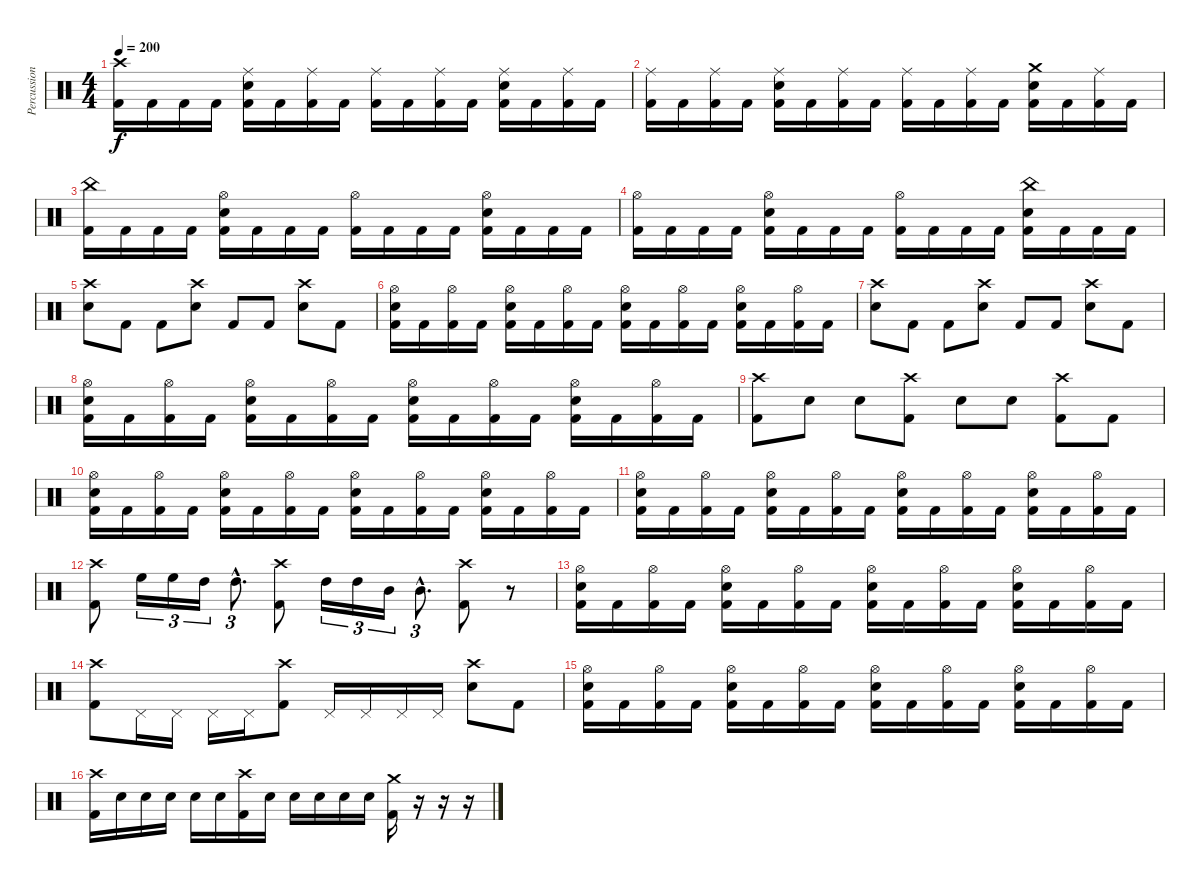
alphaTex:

\track ("Percussion" "Percussion") {instrument percussion}
\staff {score}
\articulation defaults
\ts (4 4)
\tempo 200
\clef neutral
\ks c
("Crash high (hit)" "Kick (hit) 2").16{dy f} "Kick (hit) 2".16 "Kick (hit) 2".16 "Kick (hit) 2".16 ("Ride (middle)" "Electric Snare (hit)" "Kick (hit) 2").16 "Kick (hit) 2".16 ("Ride (middle)" "Kick (hit) 2").16 "Kick (hit) 2".16 ("Ride (middle)" "Kick (hit) 2").16 "Kick (hit) 2".16 ("Ride (middle)" "Kick (hit) 2").16 "Kick (hit) 2".16 ("Ride (middle)" "Electric Snare (hit)" "Kick (hit) 2").16 "Kick (hit) 2".16 ("Ride (middle)" "Kick (hit) 2").16 "Kick (hit) 2".16 |
("Ride (middle)" "Kick (hit) 2").16 "Kick (hit) 2".16 ("Ride (middle)" "Kick (hit) 2").16 "Kick (hit) 2".16 ("Ride (middle)" "Electric Snare (hit)" "Kick (hit) 2").16 "Kick (hit) 2".16 ("Ride (middle)" "Kick (hit) 2").16 "Kick (hit) 2".16 ("Ride (middle)" "Kick (hit) 2").16 "Kick (hit) 2".16 ("Ride (middle)" "Kick (hit) 2").16 "Kick (hit) 2".16 ("Crash medium (hit)" "Electric Snare (hit)" "Kick (hit) 2").16 "Kick (hit) 2".16 ("Ride (middle)" "Kick (hit) 2").16 "Kick (hit) 2".16 |
("China (hit)" "Kick (hit) 2").16 "Kick (hit) 2".16 "Kick (hit) 2".16 "Kick (hit) 2".16 ("Hi-Hat (open)" "Electric Snare (hit)" "Kick (hit) 2").16 "Kick (hit) 2".16 "Kick (hit) 2".16 "Kick (hit) 2".16 ("Hi-Hat (open)" "Kick (hit) 2").16 "Kick (hit) 2".16 "Kick (hit) 2".16 "Kick (hit) 2".16 ("Hi-Hat (open)" "Electric Snare (hit)" "Kick (hit) 2").16 "Kick (hit) 2".16 "Kick (hit) 2".16 "Kick (hit) 2".16 |
("Hi-Hat (open)" "Kick (hit) 2").16 "Kick (hit) 2".16 "Kick (hit) 2".16 "Kick (hit) 2".16 ("Hi-Hat (open)" "Electric Snare (hit)" "Kick (hit) 2").16 "Kick (hit) 2".16 "Kick (hit) 2".16 "Kick (hit) 2".16 ("Hi-Hat (open)" "Kick (hit) 2").16 "Kick (hit) 2".16 "Kick (hit) 2".16 "Kick (hit) 2".16 ("China (hit)" "Electric Snare (hit)" "Kick (hit) 2").16 "Kick (hit) 2".16 "Kick (hit) 2".16 "Kick (hit) 2".16 |
("Crash high (hit)" "Electric Snare (hit)").8 "Kick (hit) 2".8 "Kick (hit) 2".8 ("Crash high (hit)" "Electric Snare (hit)").8 "Kick (hit) 2".8 "Kick (hit) 2".8 ("Crash high (hit)" "Electric Snare (hit)").8 "Kick (hit) 2".8 |
("Hi-Hat (open)" "Electric Snare (hit)" "Kick (hit) 2").16 "Kick (hit) 2".16 ("Hi-Hat (open)" "Kick (hit) 2").16 "Kick (hit) 2".16 ("Hi-Hat (open)" "Electric Snare (hit)" "Kick (hit) 2").16 "Kick (hit) 2".16 ("Hi-Hat (open)" "Kick (hit) 2").16 "Kick (hit) 2".16 ("Hi-Hat (open)" "Electric Snare (hit)" "Kick (hit) 2").16 "Kick (hit) 2".16 ("Hi-Hat (open)" "Kick (hit) 2").16 "Kick (hit) 2".16 ("Hi-Hat (open)" "Electric Snare (hit)" "Kick (hit) 2").16 "Kick (hit) 2".16 ("Hi-Hat (open)" "Kick (hit) 2").16 "Kick (hit) 2".16 |
("Crash high (hit)" "Electric Snare (hit)").8 "Kick (hit) 2".8 "Kick (hit) 2".8 ("Crash high (hit)" "Electric Snare (hit)").8 "Kick (hit) 2".8 "Kick (hit) 2".8 ("Crash high (hit)" "Electric Snare (hit)").8 "Kick (hit) 2".8 |
("Hi-Hat (open)" "Electric Snare (hit)" "Kick (hit) 2").16 "Kick (hit) 2".16 ("Hi-Hat (open)" "Kick (hit) 2").16 "Kick (hit) 2".16 ("Hi-Hat (open)" "Electric Snare (hit)" "Kick (hit) 2").16 "Kick (hit) 2".16 ("Hi-Hat (open)" "Kick (hit) 2").16 "Kick (hit) 2".16 ("Hi-Hat (open)" "Electric Snare (hit)" "Kick (hit) 2").16 "Kick (hit) 2".16 ("Hi-Hat (open)" "Kick (hit) 2").16 "Kick (hit) 2".16 ("Hi-Hat (open)" "Electric Snare (hit)" "Kick (hit) 2").16 "Kick (hit) 2".16 ("Hi-Hat (open)" "Kick (hit) 2").16 "Kick (hit) 2".16 |
("Crash high (hit)" "Kick (hit) 2").8 "Electric Snare (hit)".8 "Electric Snare (hit)".8 ("Crash high (hit)" "Kick (hit) 2").8 "Electric Snare (hit)".8 "Electric Snare (hit)".8 ("Crash high (hit)" "Kick (hit) 2").8 "Kick (hit) 2".8 |
("Hi-Hat (open)" "Electric Snare (hit)" "Kick (hit) 2").16 "Kick (hit) 2".16 ("Hi-Hat (open)" "Kick (hit) 2").16 "Kick (hit) 2".16 ("Hi-Hat (open)" "Electric Snare (hit)" "Kick (hit) 2").16 "Kick (hit) 2".16 ("Hi-Hat (open)" "Kick (hit) 2").16 "Kick (hit) 2".16 ("Hi-Hat (open)" "Electric Snare (hit)" "Kick (hit) 2").16 "Kick (hit) 2".16 ("Hi-Hat (open)" "Kick (hit) 2").16 "Kick (hit) 2".16 ("Hi-Hat (open)" "Electric Snare (hit)" "Kick (hit) 2").16 "Kick (hit) 2".16 ("Hi-Hat (open)" "Kick (hit) 2").16 "Kick (hit) 2".16 |
("Hi-Hat (open)" "Electric Snare (hit)" "Kick (hit) 2").16 "Kick (hit) 2".16 ("Hi-Hat (open)" "Kick (hit) 2").16 "Kick (hit) 2".16 ("Hi-Hat (open)" "Electric Snare (hit)" "Kick (hit) 2").16 "Kick (hit) 2".16 ("Hi-Hat (open)" "Kick (hit) 2").16 "Kick (hit) 2".16 ("Hi-Hat (open)" "Electric Snare (hit)" "Kick (hit) 2").16 "Kick (hit) 2".16 ("Hi-Hat (open)" "Kick (hit) 2").16 "Kick (hit) 2".16 ("Hi-Hat (open)" "Electric Snare (hit)" "Kick (hit) 2").16 "Kick (hit) 2".16 ("Hi-Hat (open)" "Kick (hit) 2").16 "Kick (hit) 2".16 |
("Crash high (hit)" "Kick (hit) 2").8 "High Floor Tom (hit)".16{tu (3 2)} "High Floor Tom (hit)".16{tu (3 2)} "High Tom (hit)".16{tu (3 2)} "High Tom (hit)"{hac}.8{d tu (3 2)} ("Crash high (hit)" "Kick (hit) 2").8 "High Tom (hit)".16{tu (3 2)} "High Tom (hit)".16{tu (3 2)} "Mid Tom (hit)".16{tu (3 2)} "Mid Tom (hit)"{hac}.8{d tu (3 2)} ("Crash high (hit)" "Kick (hit) 2").8 r.8 |
("Hi-Hat (open)" "Electric Snare (hit)" "Kick (hit) 2").16 "Kick (hit) 2".16 ("Hi-Hat (open)" "Kick (hit) 2").16 "Kick (hit) 2".16 ("Hi-Hat (open)" "Electric Snare (hit)" "Kick (hit) 2").16 "Kick (hit) 2".16 ("Hi-Hat (open)" "Kick (hit) 2").16 "Kick (hit) 2".16 ("Hi-Hat (open)" "Electric Snare (hit)" "Kick (hit) 2").16 "Kick (hit) 2".16 ("Hi-Hat (open)" "Kick (hit) 2").16 "Kick (hit) 2".16 ("Hi-Hat (open)" "Electric Snare (hit)" "Kick (hit) 2").16 "Kick (hit) 2".16 ("Hi-Hat (open)" "Kick (hit) 2").16 "Kick (hit) 2".16 |
("Crash high (hit)" "Kick (hit) 2").8 "Pedal Hi-Hat (hit)".16 "Pedal Hi-Hat (hit)".16 "Pedal Hi-Hat (hit)".16 "Pedal Hi-Hat (hit)".16 ("Crash high (hit)" "Kick (hit) 2").8 "Pedal Hi-Hat (hit)".16 "Pedal Hi-Hat (hit)".16 "Pedal Hi-Hat (hit)".16 "Pedal Hi-Hat (hit)".16 ("Crash high (hit)" "Electric Snare (hit)").8 "Kick (hit) 2".8 |
("Hi-Hat (open)" "Electric Snare (hit)" "Kick (hit) 2").16 "Kick (hit) 2".16 ("Hi-Hat (open)" "Kick (hit) 2").16 "Kick (hit) 2".16 ("Hi-Hat (open)" "Electric Snare (hit)" "Kick (hit) 2").16 "Kick (hit) 2".16 ("Hi-Hat (open)" "Kick (hit) 2").16 "Kick (hit) 2".16 ("Hi-Hat (open)" "Electric Snare (hit)" "Kick (hit) 2").16 "Kick (hit) 2".16 ("Hi-Hat (open)" "Kick (hit) 2").16 "Kick (hit) 2".16 ("Hi-Hat (open)" "Electric Snare (hit)" "Kick (hit) 2").16 "Kick (hit) 2".16 ("Hi-Hat (open)" "Kick (hit) 2").16 "Kick (hit) 2".16 |
("Crash high (hit)" "Kick (hit) 2").16 "Electric Snare (hit)".16 "Electric Snare (hit)".16 "Electric Snare (hit)".16 "Electric Snare (hit)".16 "Electric Snare (hit)".16 ("Crash high (hit)" "Kick (hit) 2").16 "Electric Snare (hit)".16 "Electric Snare (hit)".16 "Electric Snare (hit)".16 "Electric Snare (hit)".16 "Electric Snare (hit)".16 ("Crash medium (hit)" "Kick (hit) 2").16 r.16 r.16 r.16
